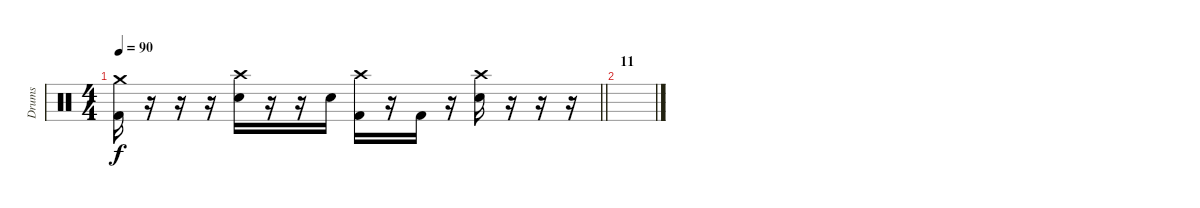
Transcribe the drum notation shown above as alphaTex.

\track ("Drums" "Drums") {instrument percussion}
\staff {score}
\articulation defaults
\ts (4 4)
\tempo 90
\clef neutral
\barLineRight lightlight
\ks c
("Crash medium (hit)" "Kick (hit) 2").16{dy f} r.16 r.16 r.16 ("Crash high (hit)" "Electric Snare (hit)").16 r.16 r.16 "Electric Snare (hit)".16 ("Crash high (hit)" "Kick (hit) 2").16 r.16 "Kick (hit) 2".16 r.16 ("Crash high (hit)" "Electric Snare (hit)").16 r.16 r.16 r.16 |
\section ("" "11")
